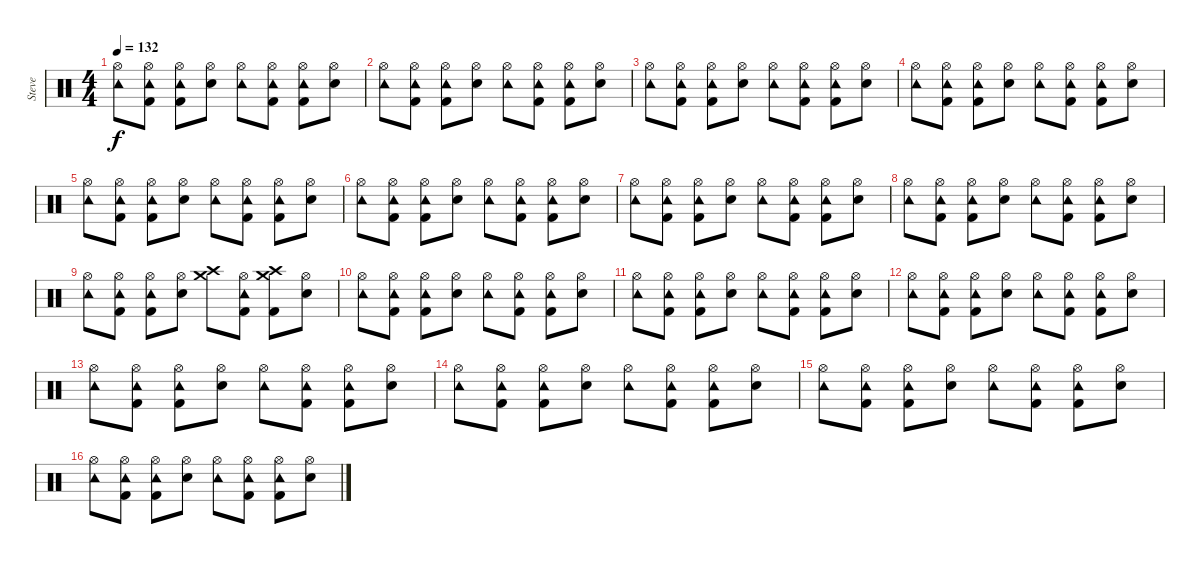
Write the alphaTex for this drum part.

\track ("Steve" "Steve") {instrument percussion}
\staff {score}
\articulation defaults
\ts (4 4)
\tempo 132
\clef neutral
\ks c
("Hi-Hat (open)" "Tambourine (hit)").8{dy f} ("Hi-Hat (open)" "Tambourine (hit)" "Kick (hit) 2").8 ("Hi-Hat (open)" "Tambourine (hit)" "Kick (hit) 2").8 ("Hi-Hat (open)" "Snare (hit) 2").8 ("Hi-Hat (open)" "Tambourine (hit)").8 ("Hi-Hat (open)" "Tambourine (hit)" "Kick (hit) 2").8 ("Hi-Hat (open)" "Tambourine (hit)" "Kick (hit) 2").8 ("Hi-Hat (open)" "Snare (hit) 2").8 |
("Hi-Hat (open)" "Tambourine (hit)").8 ("Hi-Hat (open)" "Tambourine (hit)" "Kick (hit) 2").8 ("Hi-Hat (open)" "Tambourine (hit)" "Kick (hit) 2").8 ("Hi-Hat (open)" "Snare (hit) 2").8 ("Hi-Hat (open)" "Tambourine (hit)").8 ("Hi-Hat (open)" "Tambourine (hit)" "Kick (hit) 2").8 ("Hi-Hat (open)" "Tambourine (hit)" "Kick (hit) 2").8 ("Hi-Hat (open)" "Snare (hit) 2").8 |
("Hi-Hat (open)" "Tambourine (hit)").8 ("Hi-Hat (open)" "Tambourine (hit)" "Kick (hit) 2").8 ("Hi-Hat (open)" "Tambourine (hit)" "Kick (hit) 2").8 ("Hi-Hat (open)" "Snare (hit) 2").8 ("Hi-Hat (open)" "Tambourine (hit)").8 ("Hi-Hat (open)" "Tambourine (hit)" "Kick (hit) 2").8 ("Hi-Hat (open)" "Tambourine (hit)" "Kick (hit) 2").8 ("Hi-Hat (open)" "Snare (hit) 2").8 |
("Hi-Hat (open)" "Tambourine (hit)").8 ("Hi-Hat (open)" "Tambourine (hit)" "Kick (hit) 2").8 ("Hi-Hat (open)" "Tambourine (hit)" "Kick (hit) 2").8 ("Hi-Hat (open)" "Snare (hit) 2").8 ("Hi-Hat (open)" "Tambourine (hit)").8 ("Hi-Hat (open)" "Tambourine (hit)" "Kick (hit) 2").8 ("Hi-Hat (open)" "Tambourine (hit)" "Kick (hit) 2").8 ("Hi-Hat (open)" "Snare (hit) 2").8 |
("Hi-Hat (open)" "Tambourine (hit)").8 ("Hi-Hat (open)" "Tambourine (hit)" "Kick (hit) 2").8 ("Hi-Hat (open)" "Tambourine (hit)" "Kick (hit) 2").8 ("Hi-Hat (open)" "Snare (hit) 2").8 ("Hi-Hat (open)" "Tambourine (hit)").8 ("Hi-Hat (open)" "Tambourine (hit)" "Kick (hit) 2").8 ("Hi-Hat (open)" "Tambourine (hit)" "Kick (hit) 2").8 ("Hi-Hat (open)" "Snare (hit) 2").8 |
("Hi-Hat (open)" "Tambourine (hit)").8 ("Hi-Hat (open)" "Tambourine (hit)" "Kick (hit) 2").8 ("Hi-Hat (open)" "Tambourine (hit)" "Kick (hit) 2").8 ("Hi-Hat (open)" "Snare (hit) 2").8 ("Hi-Hat (open)" "Tambourine (hit)").8 ("Hi-Hat (open)" "Tambourine (hit)" "Kick (hit) 2").8 ("Hi-Hat (open)" "Tambourine (hit)" "Kick (hit) 2").8 ("Hi-Hat (open)" "Snare (hit) 2").8 |
("Hi-Hat (open)" "Tambourine (hit)").8 ("Hi-Hat (open)" "Tambourine (hit)" "Kick (hit) 2").8 ("Hi-Hat (open)" "Tambourine (hit)" "Kick (hit) 2").8 ("Hi-Hat (open)" "Snare (hit) 2").8 ("Hi-Hat (open)" "Tambourine (hit)").8 ("Hi-Hat (open)" "Tambourine (hit)" "Kick (hit) 2").8 ("Hi-Hat (open)" "Tambourine (hit)" "Kick (hit) 2").8 ("Hi-Hat (open)" "Snare (hit) 2").8 |
("Hi-Hat (open)" "Tambourine (hit)").8 ("Hi-Hat (open)" "Tambourine (hit)" "Kick (hit) 2").8 ("Hi-Hat (open)" "Tambourine (hit)" "Kick (hit) 2").8 ("Hi-Hat (open)" "Snare (hit) 2").8 ("Hi-Hat (open)" "Tambourine (hit)").8 ("Hi-Hat (open)" "Tambourine (hit)" "Kick (hit) 2").8 ("Hi-Hat (open)" "Tambourine (hit)" "Kick (hit) 2").8 ("Hi-Hat (open)" "Snare (hit) 2").8 |
("Hi-Hat (open)" "Tambourine (hit)").8 ("Hi-Hat (open)" "Tambourine (hit)" "Kick (hit) 2").8 ("Hi-Hat (open)" "Tambourine (hit)" "Kick (hit) 2").8 ("Hi-Hat (open)" "Snare (hit) 2").8 ("Crash high (hit)" "Crash medium (hit)").8 ("Hi-Hat (open)" "Tambourine (hit)" "Kick (hit) 2").8 ("Crash high (hit)" "Crash medium (hit)" "Kick (hit) 2").8 ("Hi-Hat (open)" "Snare (hit) 2").8 |
("Hi-Hat (open)" "Tambourine (hit)").8 ("Hi-Hat (open)" "Tambourine (hit)" "Kick (hit) 2").8 ("Hi-Hat (open)" "Tambourine (hit)" "Kick (hit) 2").8 ("Hi-Hat (open)" "Snare (hit) 2").8 ("Hi-Hat (open)" "Tambourine (hit)").8 ("Hi-Hat (open)" "Tambourine (hit)" "Kick (hit) 2").8 ("Hi-Hat (open)" "Tambourine (hit)" "Kick (hit) 2").8 ("Hi-Hat (open)" "Snare (hit) 2").8 |
("Hi-Hat (open)" "Tambourine (hit)").8 ("Hi-Hat (open)" "Tambourine (hit)" "Kick (hit) 2").8 ("Hi-Hat (open)" "Tambourine (hit)" "Kick (hit) 2").8 ("Hi-Hat (open)" "Snare (hit) 2").8 ("Hi-Hat (open)" "Tambourine (hit)").8 ("Hi-Hat (open)" "Tambourine (hit)" "Kick (hit) 2").8 ("Hi-Hat (open)" "Tambourine (hit)" "Kick (hit) 2").8 ("Hi-Hat (open)" "Snare (hit) 2").8 |
("Hi-Hat (open)" "Tambourine (hit)").8 ("Hi-Hat (open)" "Tambourine (hit)" "Kick (hit) 2").8 ("Hi-Hat (open)" "Tambourine (hit)" "Kick (hit) 2").8 ("Hi-Hat (open)" "Snare (hit) 2").8 ("Hi-Hat (open)" "Tambourine (hit)").8 ("Hi-Hat (open)" "Tambourine (hit)" "Kick (hit) 2").8 ("Hi-Hat (open)" "Tambourine (hit)" "Kick (hit) 2").8 ("Hi-Hat (open)" "Snare (hit) 2").8 |
("Hi-Hat (open)" "Tambourine (hit)").8 ("Hi-Hat (open)" "Tambourine (hit)" "Kick (hit) 2").8 ("Hi-Hat (open)" "Tambourine (hit)" "Kick (hit) 2").8 ("Hi-Hat (open)" "Snare (hit) 2").8 ("Hi-Hat (open)" "Tambourine (hit)").8 ("Hi-Hat (open)" "Tambourine (hit)" "Kick (hit) 2").8 ("Hi-Hat (open)" "Tambourine (hit)" "Kick (hit) 2").8 ("Hi-Hat (open)" "Snare (hit) 2").8 |
("Hi-Hat (open)" "Tambourine (hit)").8 ("Hi-Hat (open)" "Tambourine (hit)" "Kick (hit) 2").8 ("Hi-Hat (open)" "Tambourine (hit)" "Kick (hit) 2").8 ("Hi-Hat (open)" "Snare (hit) 2").8 ("Hi-Hat (open)" "Tambourine (hit)").8 ("Hi-Hat (open)" "Tambourine (hit)" "Kick (hit) 2").8 ("Hi-Hat (open)" "Tambourine (hit)" "Kick (hit) 2").8 ("Hi-Hat (open)" "Snare (hit) 2").8 |
("Hi-Hat (open)" "Tambourine (hit)").8 ("Hi-Hat (open)" "Tambourine (hit)" "Kick (hit) 2").8 ("Hi-Hat (open)" "Tambourine (hit)" "Kick (hit) 2").8 ("Hi-Hat (open)" "Snare (hit) 2").8 ("Hi-Hat (open)" "Tambourine (hit)").8 ("Hi-Hat (open)" "Tambourine (hit)" "Kick (hit) 2").8 ("Hi-Hat (open)" "Tambourine (hit)" "Kick (hit) 2").8 ("Hi-Hat (open)" "Snare (hit) 2").8 |
("Hi-Hat (open)" "Tambourine (hit)").8 ("Hi-Hat (open)" "Tambourine (hit)" "Kick (hit) 2").8 ("Hi-Hat (open)" "Tambourine (hit)" "Kick (hit) 2").8 ("Hi-Hat (open)" "Snare (hit) 2").8 ("Hi-Hat (open)" "Tambourine (hit)").8 ("Hi-Hat (open)" "Tambourine (hit)" "Kick (hit) 2").8 ("Hi-Hat (open)" "Tambourine (hit)" "Kick (hit) 2").8 ("Hi-Hat (open)" "Snare (hit) 2").8
